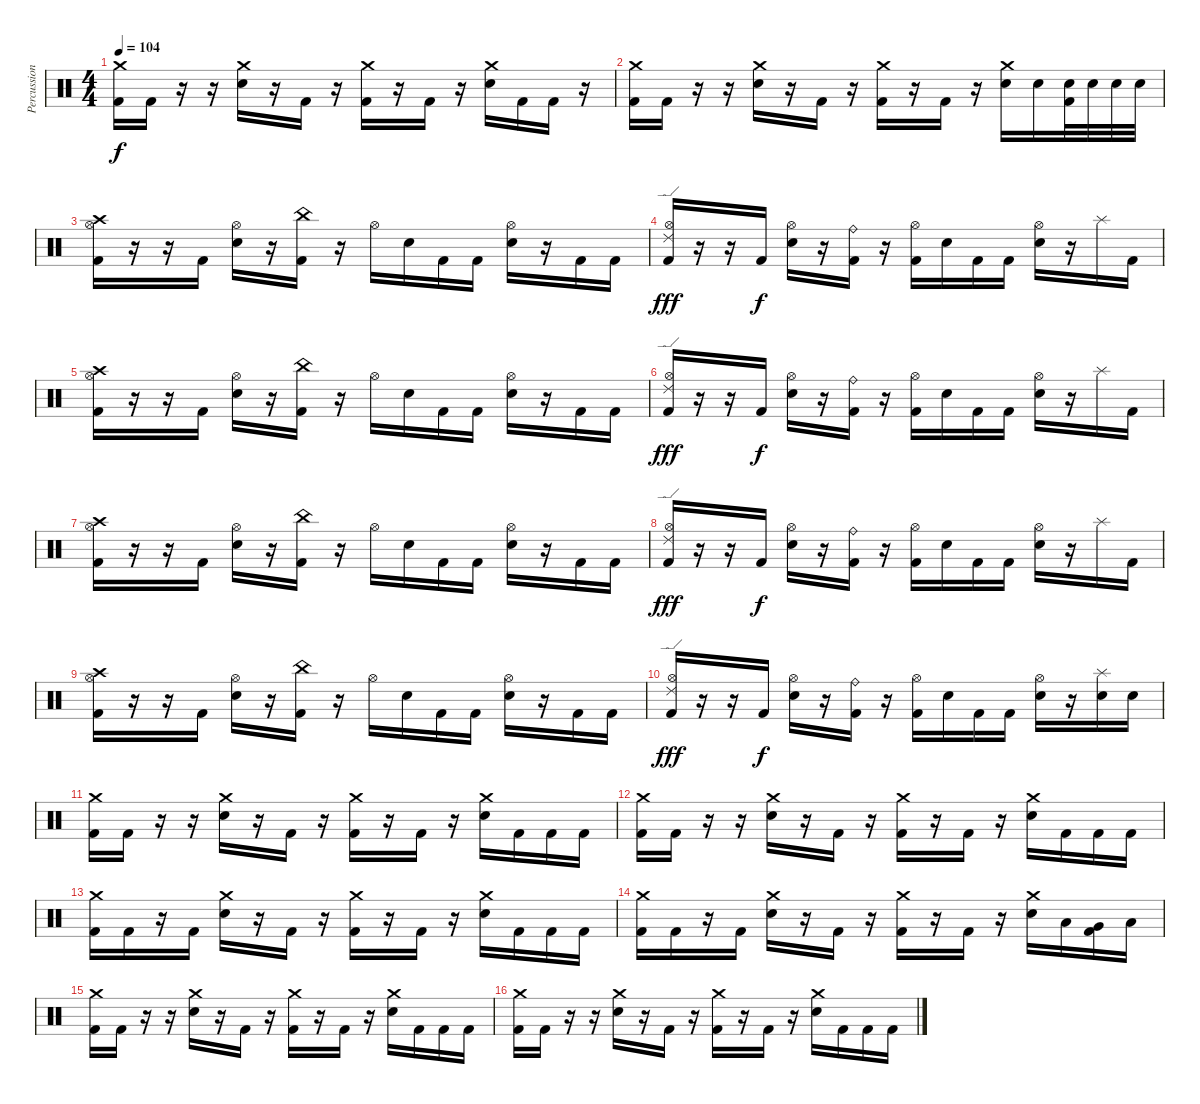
\track ("Percussion" "Percussion") {instrument percussion}
\staff {score}
\articulation defaults
\ts (4 4)
\tempo 104
\clef neutral
\ks c
("Crash medium (hit)" "Kick (hit) 2").16{dy f} "Kick (hit) 2".16 r.16 r.16 ("Crash medium (hit)" "Electric Snare (hit)").16 r.16 "Kick (hit) 2".16 r.16 ("Crash medium (hit)" "Kick (hit) 2").16 r.16 "Kick (hit) 2".16 r.16 ("Crash medium (hit)" "Electric Snare (hit)").16 "Kick (hit) 2".16 "Kick (hit) 2".16 r.16 |
("Crash medium (hit)" "Kick (hit) 2").16 "Kick (hit) 2".16 r.16 r.16 ("Crash medium (hit)" "Electric Snare (hit)").16 r.16 "Kick (hit) 2".16 r.16 ("Crash medium (hit)" "Kick (hit) 2").16 r.16 "Kick (hit) 2".16 r.16 ("Crash medium (hit)" "Electric Snare (hit)").16 "Electric Snare (hit)".16 ("Electric Snare (hit)" "Kick (hit) 2").32 "Electric Snare (hit)".32 "Electric Snare (hit)".32 "Electric Snare (hit)".32 |
("Crash high (hit)" "Hi-Hat (open)" "Kick (hit) 2").16 r.16 r.16 "Kick (hit) 2".16 ("Hi-Hat (open)" "Electric Snare (hit)").16 r.16 ("China (hit)" "Kick (hit) 2").16 r.16 "Hi-Hat (open)".16 "Electric Snare (hit)".16 "Kick (hit) 2".16 "Kick (hit) 2".16 ("Hi-Hat (open)" "Electric Snare (hit)").16 r.16 "Kick (hit) 2".16 "Kick (hit) 2".16 |
("Ride (edge) 2" "Hi-Hat (open)" "Kick (hit) 2").16{dy fff} r.16 r.16 "Kick (hit) 2".16{dy f} ("Hi-Hat (open)" "Electric Snare (hit)").16 r.16 ("Ride (bell)" "Kick (hit) 2").16 r.16 ("Hi-Hat (open)" "Kick (hit) 2").16 "Electric Snare (hit)".16 "Kick (hit) 2".16 "Kick (hit) 2".16 ("Hi-Hat (open)" "Electric Snare (hit)").16 r.16 "Splash (hit)".16 "Kick (hit) 2".16 |
("Crash high (hit)" "Hi-Hat (open)" "Kick (hit) 2").16 r.16 r.16 "Kick (hit) 2".16 ("Hi-Hat (open)" "Electric Snare (hit)").16 r.16 ("China (hit)" "Kick (hit) 2").16 r.16 "Hi-Hat (open)".16 "Electric Snare (hit)".16 "Kick (hit) 2".16 "Kick (hit) 2".16 ("Hi-Hat (open)" "Electric Snare (hit)").16 r.16 "Kick (hit) 2".16 "Kick (hit) 2".16 |
("Ride (edge) 2" "Hi-Hat (open)" "Kick (hit) 2").16{dy fff} r.16 r.16 "Kick (hit) 2".16{dy f} ("Hi-Hat (open)" "Electric Snare (hit)").16 r.16 ("Ride (bell)" "Kick (hit) 2").16 r.16 ("Hi-Hat (open)" "Kick (hit) 2").16 "Electric Snare (hit)".16 "Kick (hit) 2".16 "Kick (hit) 2".16 ("Hi-Hat (open)" "Electric Snare (hit)").16 r.16 "Splash (hit)".16 "Kick (hit) 2".16 |
("Crash high (hit)" "Hi-Hat (open)" "Kick (hit) 2").16 r.16 r.16 "Kick (hit) 2".16 ("Hi-Hat (open)" "Electric Snare (hit)").16 r.16 ("China (hit)" "Kick (hit) 2").16 r.16 "Hi-Hat (open)".16 "Electric Snare (hit)".16 "Kick (hit) 2".16 "Kick (hit) 2".16 ("Hi-Hat (open)" "Electric Snare (hit)").16 r.16 "Kick (hit) 2".16 "Kick (hit) 2".16 |
("Ride (edge) 2" "Hi-Hat (open)" "Kick (hit) 2").16{dy fff} r.16 r.16 "Kick (hit) 2".16{dy f} ("Hi-Hat (open)" "Electric Snare (hit)").16 r.16 ("Ride (bell)" "Kick (hit) 2").16 r.16 ("Hi-Hat (open)" "Kick (hit) 2").16 "Electric Snare (hit)".16 "Kick (hit) 2".16 "Kick (hit) 2".16 ("Hi-Hat (open)" "Electric Snare (hit)").16 r.16 "Splash (hit)".16 "Kick (hit) 2".16 |
("Crash high (hit)" "Hi-Hat (open)" "Kick (hit) 2").16 r.16 r.16 "Kick (hit) 2".16 ("Hi-Hat (open)" "Electric Snare (hit)").16 r.16 ("China (hit)" "Kick (hit) 2").16 r.16 "Hi-Hat (open)".16 "Electric Snare (hit)".16 "Kick (hit) 2".16 "Kick (hit) 2".16 ("Hi-Hat (open)" "Electric Snare (hit)").16 r.16 "Kick (hit) 2".16 "Kick (hit) 2".16 |
("Ride (edge) 2" "Hi-Hat (open)" "Kick (hit) 2").16{dy fff} r.16 r.16 "Kick (hit) 2".16{dy f} ("Hi-Hat (open)" "Electric Snare (hit)").16 r.16 ("Ride (bell)" "Kick (hit) 2").16 r.16 ("Hi-Hat (open)" "Kick (hit) 2").16 "Electric Snare (hit)".16 "Kick (hit) 2".16 "Kick (hit) 2".16 ("Hi-Hat (open)" "Electric Snare (hit)").16 r.16 ("Splash (hit)" "Electric Snare (hit)").16 "Electric Snare (hit)".16 |
("Crash medium (hit)" "Kick (hit) 2").16 "Kick (hit) 2".16 r.16 r.16 ("Crash medium (hit)" "Electric Snare (hit)").16 r.16 "Kick (hit) 2".16 r.16 ("Crash medium (hit)" "Kick (hit) 2").16 r.16 "Kick (hit) 2".16 r.16 ("Crash medium (hit)" "Electric Snare (hit)").16 "Kick (hit) 2".16 "Kick (hit) 2".16 "Kick (hit) 2".16 |
("Crash medium (hit)" "Kick (hit) 2").16 "Kick (hit) 2".16 r.16 r.16 ("Crash medium (hit)" "Electric Snare (hit)").16 r.16 "Kick (hit) 2".16 r.16 ("Crash medium (hit)" "Kick (hit) 2").16 r.16 "Kick (hit) 2".16 r.16 ("Crash medium (hit)" "Electric Snare (hit)").16 "Kick (hit) 2".16 "Kick (hit) 2".16 "Kick (hit) 2".16 |
("Crash medium (hit)" "Kick (hit) 2").16 "Kick (hit) 2".16 r.16 "Kick (hit) 2".16 ("Crash medium (hit)" "Electric Snare (hit)").16 r.16 "Kick (hit) 2".16 r.16 ("Crash medium (hit)" "Kick (hit) 2").16 r.16 "Kick (hit) 2".16 r.16 ("Crash medium (hit)" "Electric Snare (hit)").16 "Kick (hit) 2".16 "Kick (hit) 2".16 "Kick (hit) 2".16 |
("Crash medium (hit)" "Kick (hit) 2").16 "Kick (hit) 2".16 r.16 "Kick (hit) 2".16 ("Crash medium (hit)" "Electric Snare (hit)").16 r.16 "Kick (hit) 2".16 r.16 ("Crash medium (hit)" "Kick (hit) 2").16 r.16 "Kick (hit) 2".16 r.16 ("Crash medium (hit)" "Electric Snare (hit)").16 "Low Tom (hit)".16 ("Very Low Tom (hit)" "Kick (hit) 2").16 "Low Floor Tom (hit)".16 |
("Crash medium (hit)" "Kick (hit) 2").16 "Kick (hit) 2".16 r.16 r.16 ("Crash medium (hit)" "Electric Snare (hit)").16 r.16 "Kick (hit) 2".16 r.16 ("Crash medium (hit)" "Kick (hit) 2").16 r.16 "Kick (hit) 2".16 r.16 ("Crash medium (hit)" "Electric Snare (hit)").16 "Kick (hit) 2".16 "Kick (hit) 2".16 "Kick (hit) 2".16 |
("Crash medium (hit)" "Kick (hit) 2").16 "Kick (hit) 2".16 r.16 r.16 ("Crash medium (hit)" "Electric Snare (hit)").16 r.16 "Kick (hit) 2".16 r.16 ("Crash medium (hit)" "Kick (hit) 2").16 r.16 "Kick (hit) 2".16 r.16 ("Crash medium (hit)" "Electric Snare (hit)").16 "Kick (hit) 2".16 "Kick (hit) 2".16 "Kick (hit) 2".16
